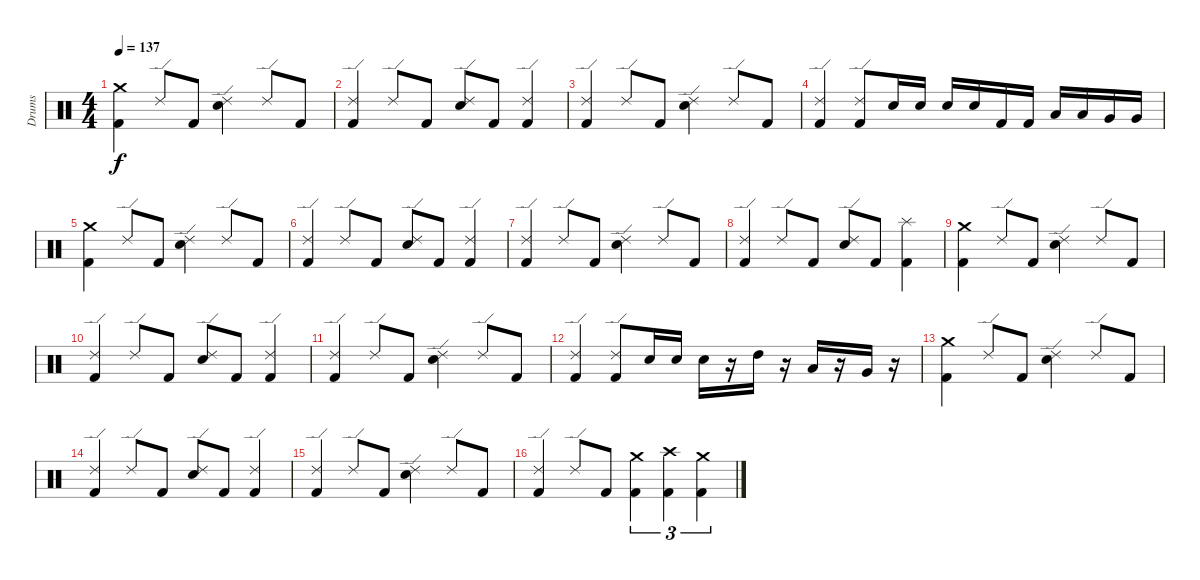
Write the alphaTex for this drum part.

\track ("Drums" "Drums") {instrument percussion}
\staff {score}
\articulation defaults
\ts (4 4)
\tempo 137
\clef neutral
\ks c
("Kick (hit) 2" "Crash medium (hit)").4{dy f} "Ride (edge) 2".8 "Kick (hit) 2".8 ("Ride (edge) 2" "Electric Snare (hit)").4 "Ride (edge) 2".8 "Kick (hit) 2".8 |
("Ride (edge) 2" "Kick (hit) 2").4 "Ride (edge) 2".8 "Kick (hit) 2".8 ("Ride (edge) 2" "Electric Snare (hit)").8 "Kick (hit) 2".8 ("Ride (edge) 2" "Kick (hit) 2").4 |
("Ride (edge) 2" "Kick (hit) 2").4 "Ride (edge) 2".8 "Kick (hit) 2".8 ("Ride (edge) 2" "Electric Snare (hit)").4 "Ride (edge) 2".8 "Kick (hit) 2".8 |
("Ride (edge) 2" "Kick (hit) 2").4 ("Ride (edge) 2" "Kick (hit) 2").8 "Electric Snare (hit)".16 "Electric Snare (hit)".16 "Electric Snare (hit)".16 "Electric Snare (hit)".16 "Kick (hit) 2".16 "Kick (hit) 2".16 "Low Tom (hit)".16 "Low Tom (hit)".16 "Very Low Tom (hit)".16 "Very Low Tom (hit)".16 |
("Kick (hit) 2" "Crash medium (hit)").4{volume 16} "Ride (edge) 2".8{volume 16} "Kick (hit) 2".8 ("Ride (edge) 2" "Electric Snare (hit)").4{volume 16} "Ride (edge) 2".8{volume 15} "Kick (hit) 2".8{volume 15} |
("Ride (edge) 2" "Kick (hit) 2").4{volume 15} "Ride (edge) 2".8{volume 15} "Kick (hit) 2".8{volume 15} ("Ride (edge) 2" "Electric Snare (hit)").8{volume 14} "Kick (hit) 2".8{volume 14} ("Ride (edge) 2" "Kick (hit) 2").4{volume 14} |
("Ride (edge) 2" "Kick (hit) 2").4{volume 14} "Ride (edge) 2".8{volume 14} "Kick (hit) 2".8{volume 14} ("Ride (edge) 2" "Electric Snare (hit)").4{volume 14} "Ride (edge) 2".8{volume 13} "Kick (hit) 2".8{volume 13} |
("Ride (edge) 2" "Kick (hit) 2").4{volume 13} "Ride (edge) 2".8{volume 13} "Kick (hit) 2".8{volume 13} ("Ride (edge) 2" "Electric Snare (hit)").8{volume 12} "Kick (hit) 2".8{volume 12} ("Splash (hit)" "Kick (hit) 2").4{volume 12} |
("Kick (hit) 2" "Crash medium (hit)").4{volume 12} "Ride (edge) 2".8{volume 12} "Kick (hit) 2".8{volume 12} ("Ride (edge) 2" "Electric Snare (hit)").4{volume 12} "Ride (edge) 2".8{volume 11} "Kick (hit) 2".8{volume 11} |
("Ride (edge) 2" "Kick (hit) 2").4{volume 11} "Ride (edge) 2".8{volume 11} "Kick (hit) 2".8{volume 11} ("Ride (edge) 2" "Electric Snare (hit)").8{volume 10} "Kick (hit) 2".8{volume 10} ("Ride (edge) 2" "Kick (hit) 2").4{volume 10} |
("Ride (edge) 2" "Kick (hit) 2").4{volume 10} "Ride (edge) 2".8{volume 10} "Kick (hit) 2".8{volume 10} ("Ride (edge) 2" "Electric Snare (hit)").4{volume 10} "Ride (edge) 2".8{volume 9} "Kick (hit) 2".8{volume 9} |
("Ride (edge) 2" "Kick (hit) 2").4{volume 9} ("Ride (edge) 2" "Kick (hit) 2").8{volume 9} "Electric Snare (hit)".16{volume 9} "Electric Snare (hit)".16{volume 8} "Electric Snare (hit)".16 r.16 "High Tom (hit)".16{volume 8} r.16 "Low Tom (hit)".16{volume 8} r.16 "Very Low Tom (hit)".16{volume 8} r.16 |
("Kick (hit) 2" "Crash medium (hit)").4{volume 8} "Ride (edge) 2".8{volume 8} "Kick (hit) 2".8{volume 8} ("Ride (edge) 2" "Electric Snare (hit)").4{volume 8} "Ride (edge) 2".8{volume 7} "Kick (hit) 2".8{volume 7} |
("Ride (edge) 2" "Kick (hit) 2").4{volume 7} "Ride (edge) 2".8{volume 7} "Kick (hit) 2".8{volume 7} ("Ride (edge) 2" "Electric Snare (hit)").8{volume 6} "Kick (hit) 2".8{volume 6} ("Ride (edge) 2" "Kick (hit) 2").4{volume 6} |
("Ride (edge) 2" "Kick (hit) 2").4{volume 6} "Ride (edge) 2".8{volume 6} "Kick (hit) 2".8{volume 6} ("Ride (edge) 2" "Electric Snare (hit)").4{volume 6} "Ride (edge) 2".8{volume 5} "Kick (hit) 2".8{volume 5} |
("Ride (edge) 2" "Kick (hit) 2").4{volume 5} "Ride (edge) 2".8{volume 5} "Kick (hit) 2".8{volume 5} ("Crash medium (hit)" "Kick (hit) 2").4{tu (3 2) volume 4} ("Crash high (hit)" "Kick (hit) 2").4{tu (3 2) volume 4} ("Crash medium (hit)" "Kick (hit) 2").4{tu (3 2) volume 4}
